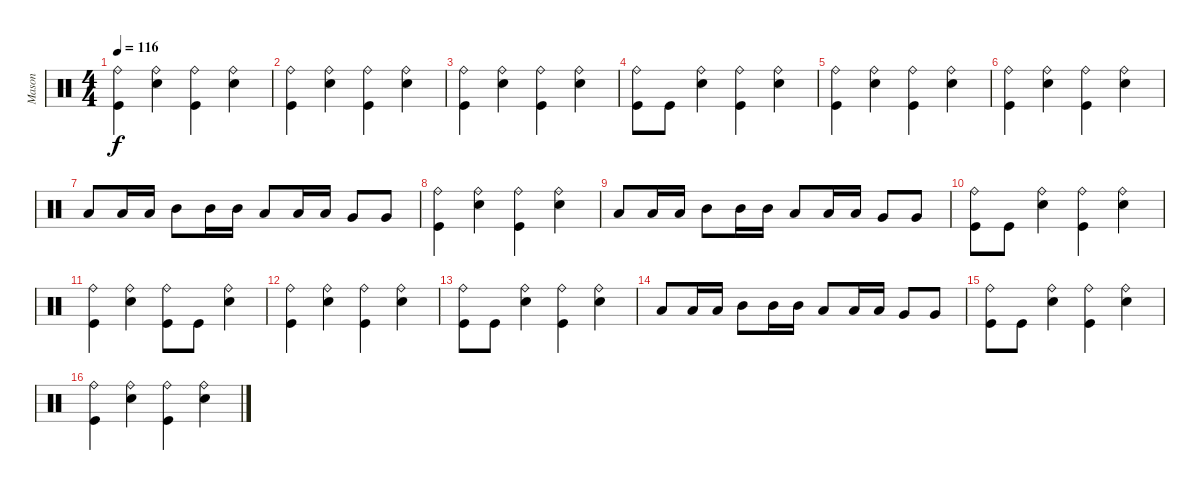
\track ("Mason" "Mason") {instrument percussion}
\staff {score}
\articulation defaults
\ts (4 4)
\tempo 116
\clef neutral
\ks c
("Kick (hit)" "Ride (bell)").4{dy f} ("Snare (hit) 2" "Ride (bell)").4 ("Kick (hit)" "Ride (bell)").4 ("Snare (hit) 2" "Ride (bell)").4 |
("Kick (hit)" "Ride (bell)").4 ("Snare (hit) 2" "Ride (bell)").4 ("Kick (hit)" "Ride (bell)").4 ("Snare (hit) 2" "Ride (bell)").4 |
("Kick (hit)" "Ride (bell)").4 ("Snare (hit) 2" "Ride (bell)").4 ("Kick (hit)" "Ride (bell)").4 ("Snare (hit) 2" "Ride (bell)").4 |
("Kick (hit)" "Ride (bell)").8 "Kick (hit)".8 ("Snare (hit) 2" "Ride (bell)").4 ("Kick (hit)" "Ride (bell)").4 ("Snare (hit) 2" "Ride (bell)").4 |
("Kick (hit)" "Ride (bell)").4 ("Snare (hit) 2" "Ride (bell)").4 ("Kick (hit)" "Ride (bell)").4 ("Snare (hit) 2" "Ride (bell)").4 |
("Kick (hit)" "Ride (bell)").4 ("Snare (hit) 2" "Ride (bell)").4 ("Kick (hit)" "Ride (bell)").4 ("Snare (hit) 2" "Ride (bell)").4 |
"Low Tom (hit)".8 "Low Tom (hit)".16 "Low Tom (hit)".16 "Mid Tom (hit)".8 "Mid Tom (hit)".16 "Mid Tom (hit)".16 "Low Floor Tom (hit)".8 "Low Floor Tom (hit)".16 "Low Floor Tom (hit)".16 "Very Low Tom (hit)".8 "Very Low Tom (hit)".8 |
("Kick (hit)" "Ride (bell)").4 ("Snare (hit) 2" "Ride (bell)").4 ("Kick (hit)" "Ride (bell)").4 ("Snare (hit) 2" "Ride (bell)").4 |
"Low Tom (hit)".8 "Low Tom (hit)".16 "Low Tom (hit)".16 "Mid Tom (hit)".8 "Mid Tom (hit)".16 "Mid Tom (hit)".16 "Low Floor Tom (hit)".8 "Low Floor Tom (hit)".16 "Low Floor Tom (hit)".16 "Very Low Tom (hit)".8 "Very Low Tom (hit)".8 |
("Kick (hit)" "Ride (bell)").8 "Kick (hit)".8 ("Snare (hit) 2" "Ride (bell)").4 ("Kick (hit)" "Ride (bell)").4 ("Snare (hit) 2" "Ride (bell)").4 |
("Kick (hit)" "Ride (bell)").4 ("Snare (hit) 2" "Ride (bell)").4 ("Kick (hit)" "Ride (bell)").8 "Kick (hit)".8 ("Snare (hit) 2" "Ride (bell)").4 |
("Kick (hit)" "Ride (bell)").4 ("Snare (hit) 2" "Ride (bell)").4 ("Kick (hit)" "Ride (bell)").4 ("Snare (hit) 2" "Ride (bell)").4 |
("Kick (hit)" "Ride (bell)").8 "Kick (hit)".8 ("Snare (hit) 2" "Ride (bell)").4 ("Kick (hit)" "Ride (bell)").4 ("Snare (hit) 2" "Ride (bell)").4 |
"Low Tom (hit)".8 "Low Tom (hit)".16 "Low Tom (hit)".16 "Mid Tom (hit)".8 "Mid Tom (hit)".16 "Mid Tom (hit)".16 "Low Floor Tom (hit)".8 "Low Floor Tom (hit)".16 "Low Floor Tom (hit)".16 "Very Low Tom (hit)".8 "Very Low Tom (hit)".8 |
("Kick (hit)" "Ride (bell)").8 "Kick (hit)".8 ("Snare (hit) 2" "Ride (bell)").4 ("Kick (hit)" "Ride (bell)").4 ("Snare (hit) 2" "Ride (bell)").4 |
("Kick (hit)" "Ride (bell)").4 ("Snare (hit) 2" "Ride (bell)").4 ("Kick (hit)" "Ride (bell)").4 ("Snare (hit) 2" "Ride (bell)").4
